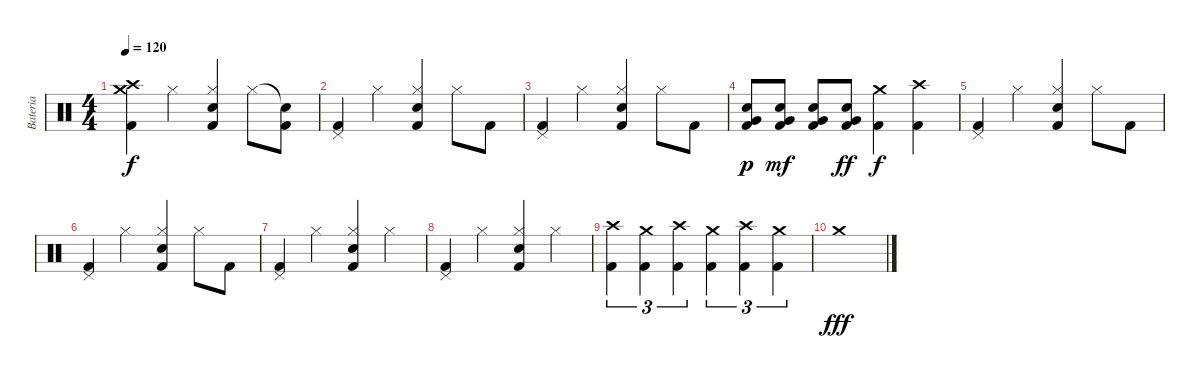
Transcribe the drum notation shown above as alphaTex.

\track ("Bateria" "Bateria") {instrument percussion}
\staff {score}
\articulation defaults
\ts (4 4)
\tempo 120
\clef neutral
\ks c
("Crash medium (hit)" "Crash high (hit)" "Kick (hit) 2").4{dy f} "Hi-Hat (closed)".4 ("Hi-Hat (closed)" "Electric Snare (hit)" "Kick (hit) 2").4 "Hi-Hat (closed)".8 ("Snare (hit)"{t} "Kick (hit) 2").8 |
("Pedal Hi-Hat (hit)" "Kick (hit) 2").4 "Hi-Hat (closed)".4 ("Hi-Hat (closed)" "Electric Snare (hit)" "Kick (hit) 2").4 "Hi-Hat (closed)".8 "Kick (hit) 2".8 |
("Pedal Hi-Hat (hit)" "Kick (hit) 2").4 "Hi-Hat (closed)".4 ("Hi-Hat (closed)" "Electric Snare (hit)" "Kick (hit) 2").4 "Hi-Hat (closed)".8 "Kick (hit) 2".8 |
("Very Low Tom (hit)" "Electric Snare (hit)" "Kick (hit) 2").8{dy p} ("Very Low Tom (hit)" "Electric Snare (hit)" "Kick (hit) 2").8{dy mf} ("Very Low Tom (hit)" "Electric Snare (hit)" "Kick (hit) 2").8 ("Very Low Tom (hit)" "Electric Snare (hit)" "Kick (hit) 2").8{dy ff} ("Crash medium (hit)" "Kick (hit) 2").4{dy f} ("Crash high (hit)" "Kick (hit) 2").4 |
("Pedal Hi-Hat (hit)" "Kick (hit) 2").4 "Hi-Hat (closed)".4 ("Hi-Hat (closed)" "Electric Snare (hit)" "Kick (hit) 2").4 "Hi-Hat (closed)".8 "Kick (hit) 2".8 |
("Pedal Hi-Hat (hit)" "Kick (hit) 2").4 "Hi-Hat (closed)".4 ("Hi-Hat (closed)" "Electric Snare (hit)" "Kick (hit) 2").4 "Hi-Hat (closed)".8 "Kick (hit) 2".8 |
("Pedal Hi-Hat (hit)" "Kick (hit) 2").4 "Hi-Hat (closed)".4 ("Hi-Hat (closed)" "Electric Snare (hit)" "Kick (hit) 2").4 "Hi-Hat (closed)".4 |
("Pedal Hi-Hat (hit)" "Kick (hit) 2").4 "Hi-Hat (closed)".4 ("Hi-Hat (closed)" "Electric Snare (hit)" "Kick (hit) 2").4 "Hi-Hat (closed)".4 |
("Crash high (hit)" "Kick (hit) 2").4{tu (3 2)} ("Crash medium (hit)" "Kick (hit) 2").4{tu (3 2)} ("Crash high (hit)" "Kick (hit) 2").4{tu (3 2)} ("Crash medium (hit)" "Kick (hit) 2").4{tu (3 2)} ("Crash high (hit)" "Kick (hit) 2").4{tu (3 2)} ("Crash medium (hit)" "Kick (hit) 2").4{tu (3 2)} |
"Crash medium (hit)".1{dy fff}
